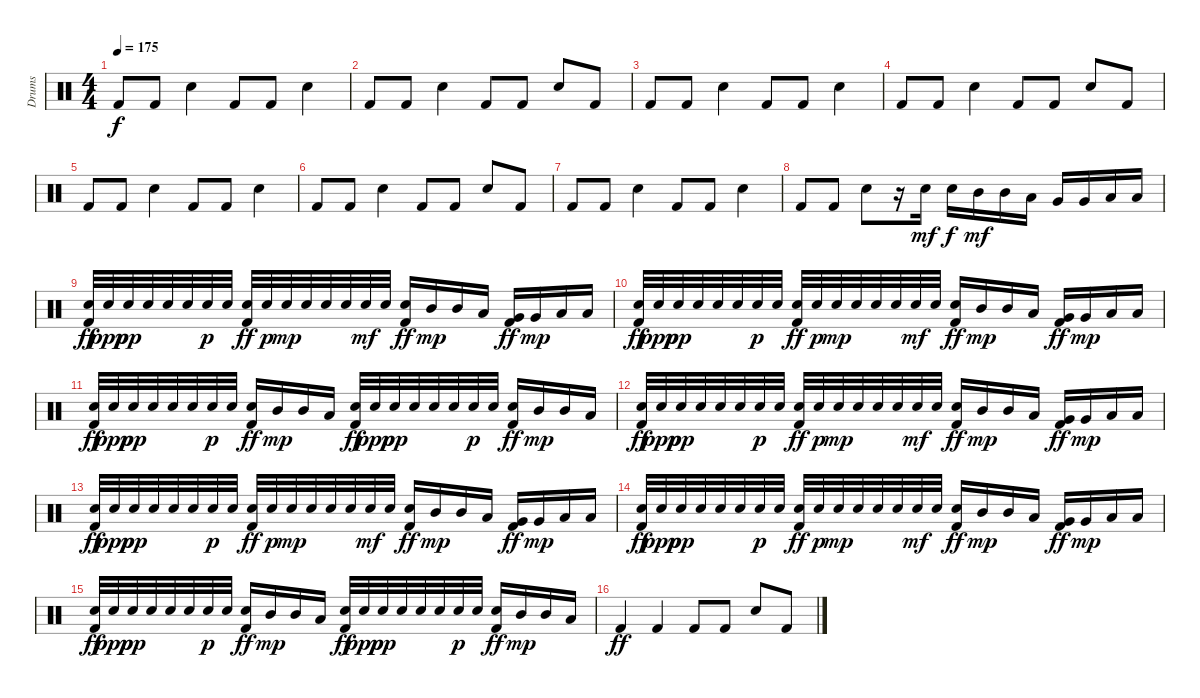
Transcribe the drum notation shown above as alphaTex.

\track ("Drums" "Drums") {instrument percussion}
\staff {score}
\articulation defaults
\ts (4 4)
\tempo 175
\clef neutral
\ks c "Kick (hit) 2".8{dy f} "Kick (hit) 2".8 "Snare (hit) 2".4 "Kick (hit) 2".8 "Kick (hit) 2".8 "Snare (hit) 2".4
|
"Kick (hit) 2".8 "Kick (hit) 2".8 "Snare (hit) 2".4 "Kick (hit) 2".8 "Kick (hit) 2".8 "Snare (hit) 2".8 "Kick (hit) 2".8 |
"Kick (hit) 2".8 "Kick (hit) 2".8 "Snare (hit) 2".4 "Kick (hit) 2".8 "Kick (hit) 2".8 "Snare (hit) 2".4 |
"Kick (hit) 2".8 "Kick (hit) 2".8 "Snare (hit) 2".4 "Kick (hit) 2".8 "Kick (hit) 2".8 "Snare (hit) 2".8 "Kick (hit) 2".8 |
"Kick (hit) 2".8 "Kick (hit) 2".8 "Snare (hit) 2".4 "Kick (hit) 2".8 "Kick (hit) 2".8 "Snare (hit) 2".4 |
"Kick (hit) 2".8 "Kick (hit) 2".8 "Snare (hit) 2".4 "Kick (hit) 2".8 "Kick (hit) 2".8 "Snare (hit) 2".8 "Kick (hit) 2".8 |
"Kick (hit) 2".8 "Kick (hit) 2".8 "Snare (hit) 2".4 "Kick (hit) 2".8 "Kick (hit) 2".8 "Snare (hit) 2".4 |
"Kick (hit) 2".8 "Kick (hit) 2".8 "Snare (hit) 2".8 r.16 "Snare (hit) 2".16{dy mf} "Snare (hit) 2".16{dy f} "Mid Tom (hit)".16{dy mf} "Mid Tom (hit)".16 "Low Tom (hit)".16 "Very Low Tom (hit)".16 "Very Low Tom (hit)".16 "Low Floor Tom (hit)".16 "Low Floor Tom (hit)".16 |
("Snare (hit) 2" "Kick (hit) 2").32{dy ff} "Snare (hit) 2".32{dy ppp} "Snare (hit) 2".32{dy pp} "Snare (hit) 2".32 "Snare (hit) 2".32 "Snare (hit) 2".32 "Snare (hit) 2".32{dy p} "Snare (hit) 2".32 ("Snare (hit) 2" "Kick (hit) 2").32{dy ff} "Snare (hit) 2".32{dy p} "Snare (hit) 2".32{dy mp} "Snare (hit) 2".32 "Snare (hit) 2".32 "Snare (hit) 2".32 "Snare (hit) 2".32{dy mf} "Snare (hit) 2".32 ("Snare (hit) 2" "Kick (hit) 2").16{dy ff} "Mid Tom (hit)".16{dy mp} "Mid Tom (hit)".16 "Low Tom (hit)".16 ("Very Low Tom (hit)" "Kick (hit) 2").16{dy ff} "Very Low Tom (hit)".16{dy mp} "Low Floor Tom (hit)".16 "Low Floor Tom (hit)".16 |
("Snare (hit) 2" "Kick (hit) 2").32{dy ff} "Snare (hit) 2".32{dy ppp} "Snare (hit) 2".32{dy pp} "Snare (hit) 2".32 "Snare (hit) 2".32 "Snare (hit) 2".32 "Snare (hit) 2".32{dy p} "Snare (hit) 2".32 ("Snare (hit) 2" "Kick (hit) 2").32{dy ff} "Snare (hit) 2".32{dy p} "Snare (hit) 2".32{dy mp} "Snare (hit) 2".32 "Snare (hit) 2".32 "Snare (hit) 2".32 "Snare (hit) 2".32{dy mf} "Snare (hit) 2".32 ("Snare (hit) 2" "Kick (hit) 2").16{dy ff} "Mid Tom (hit)".16{dy mp} "Mid Tom (hit)".16 "Low Tom (hit)".16 ("Very Low Tom (hit)" "Kick (hit) 2").16{dy ff} "Very Low Tom (hit)".16{dy mp} "Low Floor Tom (hit)".16 "Low Floor Tom (hit)".16 |
("Snare (hit) 2" "Kick (hit) 2").32{dy ff} "Snare (hit) 2".32{dy ppp} "Snare (hit) 2".32{dy pp} "Snare (hit) 2".32 "Snare (hit) 2".32 "Snare (hit) 2".32 "Snare (hit) 2".32{dy p} "Snare (hit) 2".32 ("Snare (hit) 2" "Kick (hit) 2").16{dy ff} "Mid Tom (hit)".16{dy mp} "Mid Tom (hit)".16 "Low Tom (hit)".16 ("Snare (hit) 2" "Kick (hit) 2").32{dy ff} "Snare (hit) 2".32{dy ppp} "Snare (hit) 2".32{dy pp} "Snare (hit) 2".32 "Snare (hit) 2".32 "Snare (hit) 2".32 "Snare (hit) 2".32{dy p} "Snare (hit) 2".32 ("Snare (hit) 2" "Kick (hit) 2").16{dy ff} "Mid Tom (hit)".16{dy mp} "Mid Tom (hit)".16 "Low Tom (hit)".16 |
("Snare (hit) 2" "Kick (hit) 2").32{dy ff} "Snare (hit) 2".32{dy ppp} "Snare (hit) 2".32{dy pp} "Snare (hit) 2".32 "Snare (hit) 2".32 "Snare (hit) 2".32 "Snare (hit) 2".32{dy p} "Snare (hit) 2".32 ("Snare (hit) 2" "Kick (hit) 2").32{dy ff} "Snare (hit) 2".32{dy p} "Snare (hit) 2".32{dy mp} "Snare (hit) 2".32 "Snare (hit) 2".32 "Snare (hit) 2".32 "Snare (hit) 2".32{dy mf} "Snare (hit) 2".32 ("Snare (hit) 2" "Kick (hit) 2").16{dy ff} "Mid Tom (hit)".16{dy mp} "Mid Tom (hit)".16 "Low Tom (hit)".16 ("Very Low Tom (hit)" "Kick (hit) 2").16{dy ff} "Very Low Tom (hit)".16{dy mp} "Low Floor Tom (hit)".16 "Low Floor Tom (hit)".16 |
("Snare (hit) 2" "Kick (hit) 2").32{dy ff} "Snare (hit) 2".32{dy ppp} "Snare (hit) 2".32{dy pp} "Snare (hit) 2".32 "Snare (hit) 2".32 "Snare (hit) 2".32 "Snare (hit) 2".32{dy p} "Snare (hit) 2".32 ("Snare (hit) 2" "Kick (hit) 2").32{dy ff} "Snare (hit) 2".32{dy p} "Snare (hit) 2".32{dy mp} "Snare (hit) 2".32 "Snare (hit) 2".32 "Snare (hit) 2".32 "Snare (hit) 2".32{dy mf} "Snare (hit) 2".32 ("Snare (hit) 2" "Kick (hit) 2").16{dy ff} "Mid Tom (hit)".16{dy mp} "Mid Tom (hit)".16 "Low Tom (hit)".16 ("Very Low Tom (hit)" "Kick (hit) 2").16{dy ff} "Very Low Tom (hit)".16{dy mp} "Low Floor Tom (hit)".16 "Low Floor Tom (hit)".16 |
("Snare (hit) 2" "Kick (hit) 2").32{dy ff} "Snare (hit) 2".32{dy ppp} "Snare (hit) 2".32{dy pp} "Snare (hit) 2".32 "Snare (hit) 2".32 "Snare (hit) 2".32 "Snare (hit) 2".32{dy p} "Snare (hit) 2".32 ("Snare (hit) 2" "Kick (hit) 2").32{dy ff} "Snare (hit) 2".32{dy p} "Snare (hit) 2".32{dy mp} "Snare (hit) 2".32 "Snare (hit) 2".32 "Snare (hit) 2".32 "Snare (hit) 2".32{dy mf} "Snare (hit) 2".32 ("Snare (hit) 2" "Kick (hit) 2").16{dy ff} "Mid Tom (hit)".16{dy mp} "Mid Tom (hit)".16 "Low Tom (hit)".16 ("Very Low Tom (hit)" "Kick (hit) 2").16{dy ff} "Very Low Tom (hit)".16{dy mp} "Low Floor Tom (hit)".16 "Low Floor Tom (hit)".16 |
("Snare (hit) 2" "Kick (hit) 2").32{dy ff} "Snare (hit) 2".32{dy ppp} "Snare (hit) 2".32{dy pp} "Snare (hit) 2".32 "Snare (hit) 2".32 "Snare (hit) 2".32 "Snare (hit) 2".32{dy p} "Snare (hit) 2".32 ("Snare (hit) 2" "Kick (hit) 2").16{dy ff} "Mid Tom (hit)".16{dy mp} "Mid Tom (hit)".16 "Low Tom (hit)".16 ("Snare (hit) 2" "Kick (hit) 2").32{dy ff} "Snare (hit) 2".32{dy ppp} "Snare (hit) 2".32{dy pp} "Snare (hit) 2".32 "Snare (hit) 2".32 "Snare (hit) 2".32 "Snare (hit) 2".32{dy p} "Snare (hit) 2".32 ("Snare (hit) 2" "Kick (hit) 2").16{dy ff} "Mid Tom (hit)".16{dy mp} "Mid Tom (hit)".16 "Low Tom (hit)".16 |
"Kick (hit) 2".4{dy ff} "Kick (hit) 2".4 "Kick (hit) 2".8 "Kick (hit) 2".8 "Snare (hit) 2".8 "Kick (hit) 2".8
